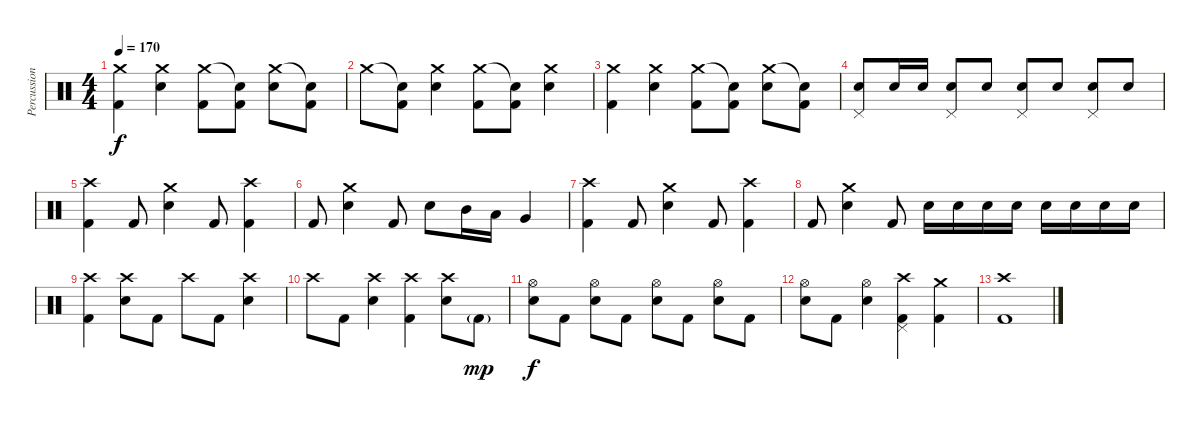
\track ("Percussion" "Percussion") {instrument percussion}
\staff {score}
\articulation defaults
\ts (4 4)
\tempo 170
\clef neutral
\ks c
("Crash medium (hit)" "Kick (hit) 2").4{dy f} ("Crash medium (hit)" "Electric Snare (hit)").4 ("Crash medium (hit)" "Kick (hit) 2").8 ("Snare (hit)"{t} "Kick (hit) 2").8 ("Crash medium (hit)" "Electric Snare (hit)").8 ("Snare (hit)"{t} "Kick (hit) 2").8 |
"Crash medium (hit)".8 ("Snare (hit)"{t} "Kick (hit) 2").8 ("Crash medium (hit)" "Electric Snare (hit)").4 ("Crash medium (hit)" "Kick (hit) 2").8 ("Snare (hit)"{t} "Kick (hit) 2").8 ("Crash medium (hit)" "Electric Snare (hit)").4 |
("Crash medium (hit)" "Kick (hit) 2").4 ("Crash medium (hit)" "Electric Snare (hit)").4 ("Crash medium (hit)" "Kick (hit) 2").8 ("Snare (hit)"{t} "Kick (hit) 2").8 ("Crash medium (hit)" "Electric Snare (hit)").8 ("Snare (hit)"{t} "Kick (hit) 2").8 |
("Pedal Hi-Hat (hit)" "Electric Snare (hit)").8 "Electric Snare (hit)".16 "Electric Snare (hit)".16 ("Pedal Hi-Hat (hit)" "Electric Snare (hit)").8 "Electric Snare (hit)".8 ("Pedal Hi-Hat (hit)" "Electric Snare (hit)").8 "Electric Snare (hit)".8 ("Pedal Hi-Hat (hit)" "Electric Snare (hit)").8 "Electric Snare (hit)".8 |
("Crash high (hit)" "Kick (hit) 2").4 "Kick (hit) 2".8 ("Crash medium (hit)" "Electric Snare (hit)").4 "Kick (hit) 2".8 ("Crash high (hit)" "Kick (hit) 2").4 |
"Kick (hit) 2".8 ("Crash medium (hit)" "Electric Snare (hit)").4 "Kick (hit) 2".8 "Electric Snare (hit)".8 "Mid Tom (hit)".16 "Low Tom (hit)".16 "Very Low Tom (hit)".4 |
("Crash high (hit)" "Kick (hit) 2").4 "Kick (hit) 2".8 ("Crash medium (hit)" "Electric Snare (hit)").4 "Kick (hit) 2".8 ("Crash high (hit)" "Kick (hit) 2").4 |
"Kick (hit) 2".8 ("Crash medium (hit)" "Electric Snare (hit)").4 "Kick (hit) 2".8 "Electric Snare (hit)".16 "Electric Snare (hit)".16 "Electric Snare (hit)".16 "Electric Snare (hit)".16 "Electric Snare (hit)".16 "Electric Snare (hit)".16 "Electric Snare (hit)".16 "Electric Snare (hit)".16 |
("Crash high (hit)" "Kick (hit) 2").4 ("Crash high (hit)" "Electric Snare (hit)").8 "Kick (hit) 2".8 "Crash high (hit)".8 "Kick (hit) 2".8 ("Crash high (hit)" "Electric Snare (hit)").4 |
"Crash high (hit)".8 "Kick (hit) 2".8 ("Crash high (hit)" "Electric Snare (hit)").4 ("Crash high (hit)" "Kick (hit) 2").4 ("Crash high (hit)" "Electric Snare (hit)").8 "Kick (hit) 2"{g}.8{dy mp} |
("Hi-Hat (open)" "Electric Snare (hit)").8{dy f} "Kick (hit) 2".8 ("Hi-Hat (open)" "Electric Snare (hit)").8 "Kick (hit) 2".8 ("Hi-Hat (open)" "Electric Snare (hit)").8 "Kick (hit) 2".8 ("Hi-Hat (open)" "Electric Snare (hit)").8 "Kick (hit) 2".8 |
("Hi-Hat (open)" "Electric Snare (hit)").8 "Kick (hit) 2".8 ("Hi-Hat (open)" "Electric Snare (hit)").4 ("Crash high (hit)" "Pedal Hi-Hat (hit)" "Kick (hit) 2").4 ("Crash medium (hit)" "Kick (hit) 2").4 |
("Crash high (hit)" "Kick (hit) 2").1
